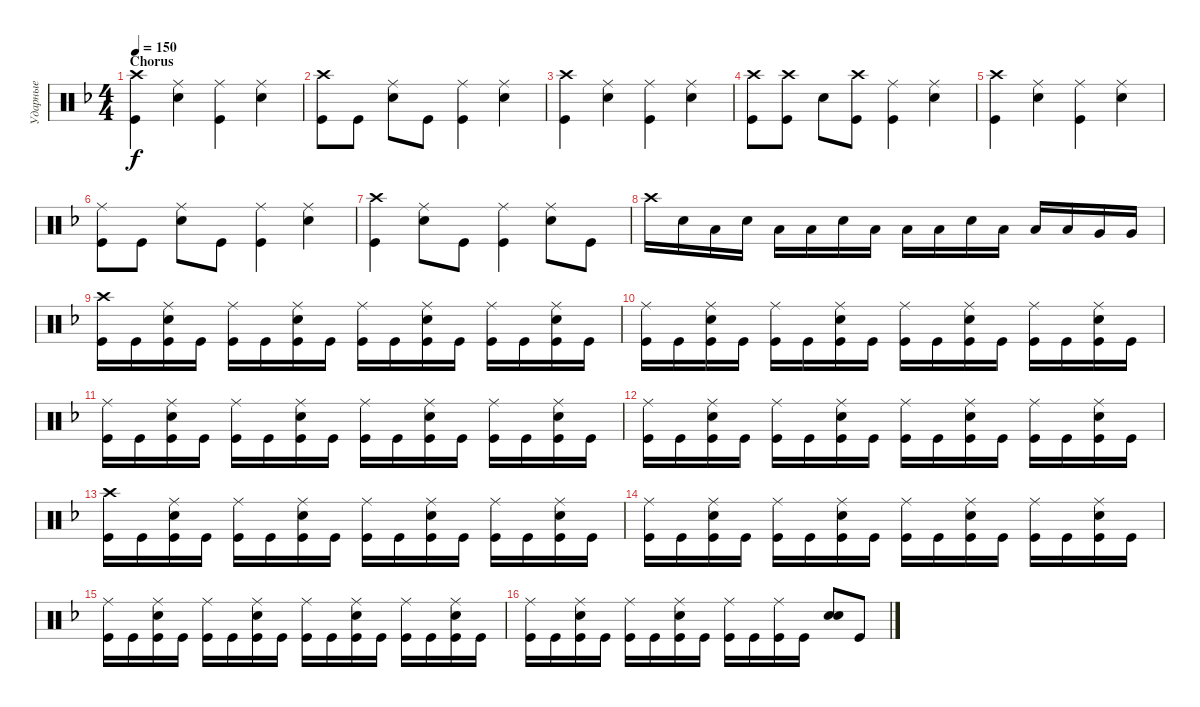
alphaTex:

\track ("Ударные" "Ударные") {instrument percussion}
\staff {score}
\articulation defaults
\ts (4 4)
\section ("" "Chorus")
\tempo 150
\clef neutral
\ks dminor
("Kick (hit)" "Crash high (hit)").4{dy f} ("Snare (hit) 2" "Ride (middle)").4 ("Kick (hit)" "Ride (middle)").4 ("Snare (hit) 2" "Ride (middle)").4 |
("Kick (hit)" "Crash high (hit)").8 "Kick (hit)".8 ("Snare (hit) 2" "Ride (middle)").8 "Kick (hit)".8 ("Kick (hit)" "Ride (middle)").4 ("Snare (hit) 2" "Ride (middle)").4 |
("Kick (hit)" "Crash high (hit)").4 ("Snare (hit) 2" "Ride (middle)").4 ("Kick (hit)" "Ride (middle)").4 ("Snare (hit) 2" "Ride (middle)").4 |
("Kick (hit)" "Crash high (hit)").8 ("Kick (hit)" "Crash high (hit)").8 "Snare (hit) 2".8 ("Kick (hit)" "Crash high (hit)").8 ("Kick (hit)" "Ride (middle)").4 ("Snare (hit) 2" "Ride (middle)").4 |
("Kick (hit)" "Crash high (hit)").4 ("Snare (hit) 2" "Ride (middle)").4 ("Kick (hit)" "Ride (middle)").4 ("Snare (hit) 2" "Ride (middle)").4 |
("Kick (hit)" "Ride (middle)").8 "Kick (hit)".8 ("Snare (hit) 2" "Ride (middle)").8 "Kick (hit)".8 ("Kick (hit)" "Ride (middle)").4 ("Snare (hit) 2" "Ride (middle)").4 |
("Kick (hit)" "Crash high (hit)").4 ("Snare (hit) 2" "Ride (middle)").8 "Kick (hit)".8 ("Kick (hit)" "Ride (middle)").4 ("Snare (hit) 2" "Ride (middle)").8 "Kick (hit)".8 |
"Crash high (hit)".16 "Snare (hit) 2".16 "Low Tom (hit)".16 "Snare (hit) 2".16 "Low Tom (hit)".16 "Low Tom (hit)".16 "Snare (hit) 2".16 "Low Tom (hit)".16 "Low Tom (hit)".16 "Low Tom (hit)".16 "Snare (hit) 2".16 "Low Tom (hit)".16 "Low Tom (hit)".16 "Low Tom (hit)".16 "Very Low Tom (hit)".16 "Very Low Tom (hit)".16 |
("Kick (hit)" "Crash high (hit)").16 "Kick (hit)".16 ("Kick (hit)" "Snare (hit) 2" "Ride (middle)").16 "Kick (hit)".16 ("Kick (hit)" "Ride (middle)").16 "Kick (hit)".16 ("Kick (hit)" "Snare (hit) 2" "Ride (middle)").16 "Kick (hit)".16 ("Kick (hit)" "Ride (middle)").16 "Kick (hit)".16 ("Snare (hit) 2" "Kick (hit)" "Ride (middle)").16 "Kick (hit)".16 ("Kick (hit)" "Ride (middle)").16 "Kick (hit)".16 ("Kick (hit)" "Snare (hit) 2" "Ride (middle)").16 "Kick (hit)".16 |
("Kick (hit)" "Ride (middle)").16 "Kick (hit)".16 ("Kick (hit)" "Snare (hit) 2" "Ride (middle)").16 "Kick (hit)".16 ("Kick (hit)" "Ride (middle)").16 "Kick (hit)".16 ("Kick (hit)" "Snare (hit) 2" "Ride (middle)").16 "Kick (hit)".16 ("Kick (hit)" "Ride (middle)").16 "Kick (hit)".16 ("Snare (hit) 2" "Kick (hit)" "Ride (middle)").16 "Kick (hit)".16 ("Kick (hit)" "Ride (middle)").16 "Kick (hit)".16 ("Kick (hit)" "Snare (hit) 2" "Ride (middle)").16 "Kick (hit)".16 |
("Kick (hit)" "Ride (middle)").16 "Kick (hit)".16 ("Kick (hit)" "Snare (hit) 2" "Ride (middle)").16 "Kick (hit)".16 ("Kick (hit)" "Ride (middle)").16 "Kick (hit)".16 ("Kick (hit)" "Snare (hit) 2" "Ride (middle)").16 "Kick (hit)".16 ("Kick (hit)" "Ride (middle)").16 "Kick (hit)".16 ("Snare (hit) 2" "Kick (hit)" "Ride (middle)").16 "Kick (hit)".16 ("Kick (hit)" "Ride (middle)").16 "Kick (hit)".16 ("Kick (hit)" "Snare (hit) 2" "Ride (middle)").16 "Kick (hit)".16 |
("Kick (hit)" "Ride (middle)").16 "Kick (hit)".16 ("Kick (hit)" "Snare (hit) 2" "Ride (middle)").16 "Kick (hit)".16 ("Kick (hit)" "Ride (middle)").16 "Kick (hit)".16 ("Kick (hit)" "Snare (hit) 2" "Ride (middle)").16 "Kick (hit)".16 ("Kick (hit)" "Ride (middle)").16 "Kick (hit)".16 ("Snare (hit) 2" "Kick (hit)" "Ride (middle)").16 "Kick (hit)".16 ("Kick (hit)" "Ride (middle)").16 "Kick (hit)".16 ("Kick (hit)" "Snare (hit) 2" "Ride (middle)").16 "Kick (hit)".16 |
("Kick (hit)" "Crash high (hit)").16 "Kick (hit)".16 ("Kick (hit)" "Snare (hit) 2" "Ride (middle)").16 "Kick (hit)".16 ("Kick (hit)" "Ride (middle)").16 "Kick (hit)".16 ("Kick (hit)" "Snare (hit) 2" "Ride (middle)").16 "Kick (hit)".16 ("Kick (hit)" "Ride (middle)").16 "Kick (hit)".16 ("Snare (hit) 2" "Kick (hit)" "Ride (middle)").16 "Kick (hit)".16 ("Kick (hit)" "Ride (middle)").16 "Kick (hit)".16 ("Kick (hit)" "Snare (hit) 2" "Ride (middle)").16 "Kick (hit)".16 |
("Kick (hit)" "Ride (middle)").16 "Kick (hit)".16 ("Kick (hit)" "Snare (hit) 2" "Ride (middle)").16 "Kick (hit)".16 ("Kick (hit)" "Ride (middle)").16 "Kick (hit)".16 ("Kick (hit)" "Snare (hit) 2" "Ride (middle)").16 "Kick (hit)".16 ("Kick (hit)" "Ride (middle)").16 "Kick (hit)".16 ("Snare (hit) 2" "Kick (hit)" "Ride (middle)").16 "Kick (hit)".16 ("Kick (hit)" "Ride (middle)").16 "Kick (hit)".16 ("Kick (hit)" "Snare (hit) 2" "Ride (middle)").16 "Kick (hit)".16 |
("Kick (hit)" "Ride (middle)").16 "Kick (hit)".16 ("Kick (hit)" "Snare (hit) 2" "Ride (middle)").16 "Kick (hit)".16 ("Kick (hit)" "Ride (middle)").16 "Kick (hit)".16 ("Kick (hit)" "Snare (hit) 2" "Ride (middle)").16 "Kick (hit)".16 ("Kick (hit)" "Ride (middle)").16 "Kick (hit)".16 ("Snare (hit) 2" "Kick (hit)" "Ride (middle)").16 "Kick (hit)".16 ("Kick (hit)" "Ride (middle)").16 "Kick (hit)".16 ("Kick (hit)" "Snare (hit) 2" "Ride (middle)").16 "Kick (hit)".16 |
("Kick (hit)" "Ride (middle)").16 "Kick (hit)".16 ("Kick (hit)" "Snare (hit) 2" "Ride (middle)").16 "Kick (hit)".16 ("Kick (hit)" "Ride (middle)").16 "Kick (hit)".16 ("Kick (hit)" "Snare (hit) 2" "Ride (middle)").16 "Kick (hit)".16 ("Kick (hit)" "Ride (middle)").16 "Kick (hit)".16 ("Kick (hit)" "Ride (middle)").16 "Kick (hit)".16 ("Snare (hit) 2" "Snare (hit) 2").8{bd 480} "Kick (hit)".8
